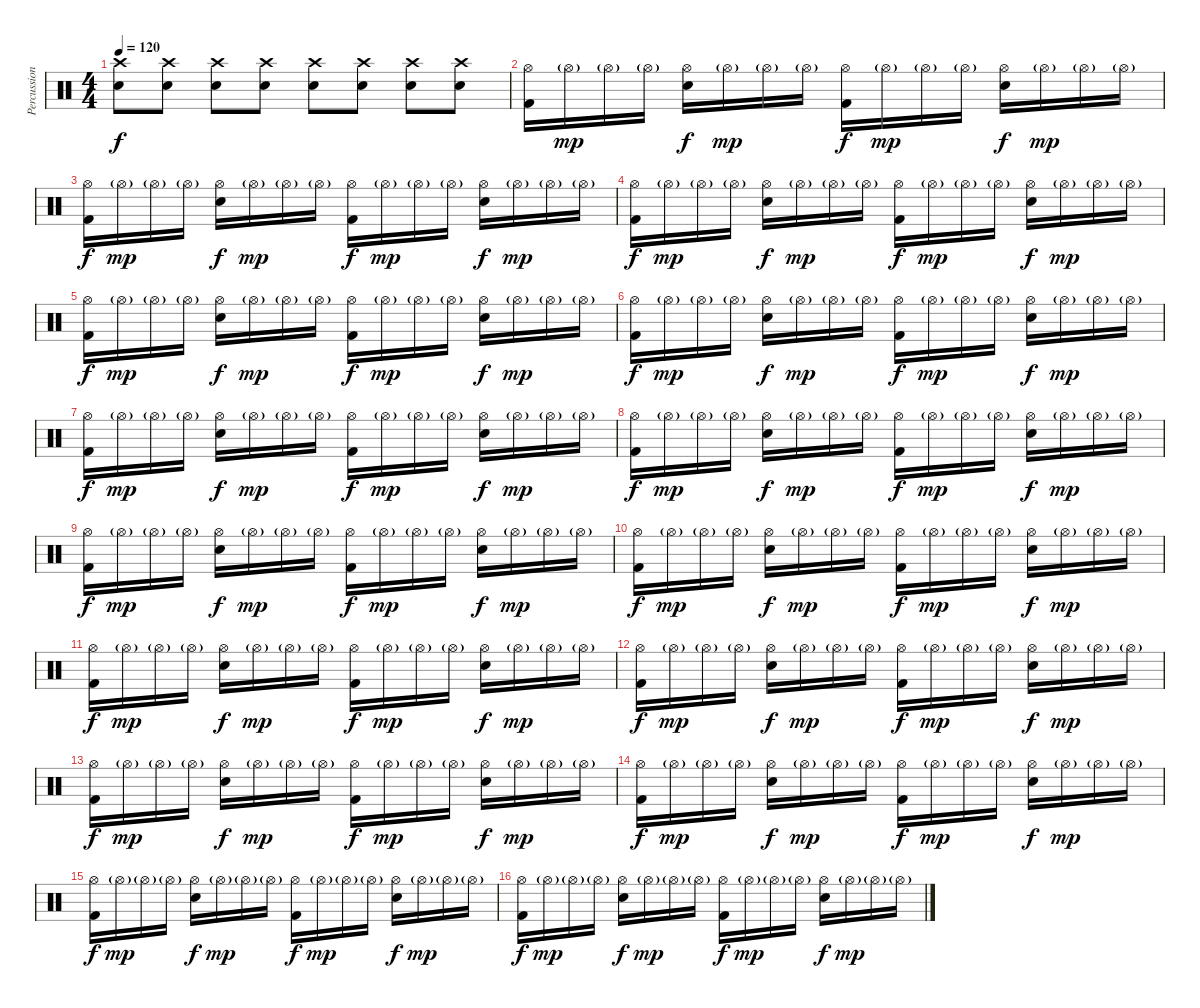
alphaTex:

\track ("Percussion" "Percussion") {instrument percussion}
\staff {score}
\articulation defaults
\ts (4 4)
\tempo 120
\clef neutral
\ks c
("Crash high (hit)" "Electric Snare (hit)").8{dy f} ("Crash high (hit)" "Electric Snare (hit)").8 ("Crash high (hit)" "Electric Snare (hit)").8 ("Crash high (hit)" "Electric Snare (hit)").8 ("Crash high (hit)" "Electric Snare (hit)").8 ("Crash high (hit)" "Electric Snare (hit)").8 ("Crash high (hit)" "Electric Snare (hit)").8 ("Crash high (hit)" "Electric Snare (hit)").8 |
("Hi-Hat (open)" "Kick (hit) 2").16 "Hi-Hat (open)"{g}.16{dy mp} "Hi-Hat (open)"{g}.16 "Hi-Hat (open)"{g}.16 ("Hi-Hat (open)" "Electric Snare (hit)").16{dy f} "Hi-Hat (open)"{g}.16{dy mp} "Hi-Hat (open)"{g}.16 "Hi-Hat (open)"{g}.16 ("Hi-Hat (open)" "Kick (hit) 2").16{dy f} "Hi-Hat (open)"{g}.16{dy mp} "Hi-Hat (open)"{g}.16 "Hi-Hat (open)"{g}.16 ("Hi-Hat (open)" "Electric Snare (hit)").16{dy f} "Hi-Hat (open)"{g}.16{dy mp} "Hi-Hat (open)"{g}.16 "Hi-Hat (open)"{g}.16 |
("Hi-Hat (open)" "Kick (hit) 2").16{dy f} "Hi-Hat (open)"{g}.16{dy mp} "Hi-Hat (open)"{g}.16 "Hi-Hat (open)"{g}.16 ("Hi-Hat (open)" "Electric Snare (hit)").16{dy f} "Hi-Hat (open)"{g}.16{dy mp} "Hi-Hat (open)"{g}.16 "Hi-Hat (open)"{g}.16 ("Hi-Hat (open)" "Kick (hit) 2").16{dy f} "Hi-Hat (open)"{g}.16{dy mp} "Hi-Hat (open)"{g}.16 "Hi-Hat (open)"{g}.16 ("Hi-Hat (open)" "Electric Snare (hit)").16{dy f} "Hi-Hat (open)"{g}.16{dy mp} "Hi-Hat (open)"{g}.16 "Hi-Hat (open)"{g}.16 |
("Hi-Hat (open)" "Kick (hit) 2").16{dy f} "Hi-Hat (open)"{g}.16{dy mp} "Hi-Hat (open)"{g}.16 "Hi-Hat (open)"{g}.16 ("Hi-Hat (open)" "Electric Snare (hit)").16{dy f} "Hi-Hat (open)"{g}.16{dy mp} "Hi-Hat (open)"{g}.16 "Hi-Hat (open)"{g}.16 ("Hi-Hat (open)" "Kick (hit) 2").16{dy f} "Hi-Hat (open)"{g}.16{dy mp} "Hi-Hat (open)"{g}.16 "Hi-Hat (open)"{g}.16 ("Hi-Hat (open)" "Electric Snare (hit)").16{dy f} "Hi-Hat (open)"{g}.16{dy mp} "Hi-Hat (open)"{g}.16 "Hi-Hat (open)"{g}.16 |
("Hi-Hat (open)" "Kick (hit) 2").16{dy f} "Hi-Hat (open)"{g}.16{dy mp} "Hi-Hat (open)"{g}.16 "Hi-Hat (open)"{g}.16 ("Hi-Hat (open)" "Electric Snare (hit)").16{dy f} "Hi-Hat (open)"{g}.16{dy mp} "Hi-Hat (open)"{g}.16 "Hi-Hat (open)"{g}.16 ("Hi-Hat (open)" "Kick (hit) 2").16{dy f} "Hi-Hat (open)"{g}.16{dy mp} "Hi-Hat (open)"{g}.16 "Hi-Hat (open)"{g}.16 ("Hi-Hat (open)" "Electric Snare (hit)").16{dy f} "Hi-Hat (open)"{g}.16{dy mp} "Hi-Hat (open)"{g}.16 "Hi-Hat (open)"{g}.16 |
("Hi-Hat (open)" "Kick (hit) 2").16{dy f} "Hi-Hat (open)"{g}.16{dy mp} "Hi-Hat (open)"{g}.16 "Hi-Hat (open)"{g}.16 ("Hi-Hat (open)" "Electric Snare (hit)").16{dy f} "Hi-Hat (open)"{g}.16{dy mp} "Hi-Hat (open)"{g}.16 "Hi-Hat (open)"{g}.16 ("Hi-Hat (open)" "Kick (hit) 2").16{dy f} "Hi-Hat (open)"{g}.16{dy mp} "Hi-Hat (open)"{g}.16 "Hi-Hat (open)"{g}.16 ("Hi-Hat (open)" "Electric Snare (hit)").16{dy f} "Hi-Hat (open)"{g}.16{dy mp} "Hi-Hat (open)"{g}.16 "Hi-Hat (open)"{g}.16 |
("Hi-Hat (open)" "Kick (hit) 2").16{dy f} "Hi-Hat (open)"{g}.16{dy mp} "Hi-Hat (open)"{g}.16 "Hi-Hat (open)"{g}.16 ("Hi-Hat (open)" "Electric Snare (hit)").16{dy f} "Hi-Hat (open)"{g}.16{dy mp} "Hi-Hat (open)"{g}.16 "Hi-Hat (open)"{g}.16 ("Hi-Hat (open)" "Kick (hit) 2").16{dy f} "Hi-Hat (open)"{g}.16{dy mp} "Hi-Hat (open)"{g}.16 "Hi-Hat (open)"{g}.16 ("Hi-Hat (open)" "Electric Snare (hit)").16{dy f} "Hi-Hat (open)"{g}.16{dy mp} "Hi-Hat (open)"{g}.16 "Hi-Hat (open)"{g}.16 |
("Hi-Hat (open)" "Kick (hit) 2").16{dy f} "Hi-Hat (open)"{g}.16{dy mp} "Hi-Hat (open)"{g}.16 "Hi-Hat (open)"{g}.16 ("Hi-Hat (open)" "Electric Snare (hit)").16{dy f} "Hi-Hat (open)"{g}.16{dy mp} "Hi-Hat (open)"{g}.16 "Hi-Hat (open)"{g}.16 ("Hi-Hat (open)" "Kick (hit) 2").16{dy f} "Hi-Hat (open)"{g}.16{dy mp} "Hi-Hat (open)"{g}.16 "Hi-Hat (open)"{g}.16 ("Hi-Hat (open)" "Electric Snare (hit)").16{dy f} "Hi-Hat (open)"{g}.16{dy mp} "Hi-Hat (open)"{g}.16 "Hi-Hat (open)"{g}.16 |
("Hi-Hat (open)" "Kick (hit) 2").16{dy f} "Hi-Hat (open)"{g}.16{dy mp} "Hi-Hat (open)"{g}.16 "Hi-Hat (open)"{g}.16 ("Hi-Hat (open)" "Electric Snare (hit)").16{dy f} "Hi-Hat (open)"{g}.16{dy mp} "Hi-Hat (open)"{g}.16 "Hi-Hat (open)"{g}.16 ("Hi-Hat (open)" "Kick (hit) 2").16{dy f} "Hi-Hat (open)"{g}.16{dy mp} "Hi-Hat (open)"{g}.16 "Hi-Hat (open)"{g}.16 ("Hi-Hat (open)" "Electric Snare (hit)").16{dy f} "Hi-Hat (open)"{g}.16{dy mp} "Hi-Hat (open)"{g}.16 "Hi-Hat (open)"{g}.16 |
("Hi-Hat (open)" "Kick (hit) 2").16{dy f} "Hi-Hat (open)"{g}.16{dy mp} "Hi-Hat (open)"{g}.16 "Hi-Hat (open)"{g}.16 ("Hi-Hat (open)" "Electric Snare (hit)").16{dy f} "Hi-Hat (open)"{g}.16{dy mp} "Hi-Hat (open)"{g}.16 "Hi-Hat (open)"{g}.16 ("Hi-Hat (open)" "Kick (hit) 2").16{dy f} "Hi-Hat (open)"{g}.16{dy mp} "Hi-Hat (open)"{g}.16 "Hi-Hat (open)"{g}.16 ("Hi-Hat (open)" "Electric Snare (hit)").16{dy f} "Hi-Hat (open)"{g}.16{dy mp} "Hi-Hat (open)"{g}.16 "Hi-Hat (open)"{g}.16 |
("Hi-Hat (open)" "Kick (hit) 2").16{dy f} "Hi-Hat (open)"{g}.16{dy mp} "Hi-Hat (open)"{g}.16 "Hi-Hat (open)"{g}.16 ("Hi-Hat (open)" "Electric Snare (hit)").16{dy f} "Hi-Hat (open)"{g}.16{dy mp} "Hi-Hat (open)"{g}.16 "Hi-Hat (open)"{g}.16 ("Hi-Hat (open)" "Kick (hit) 2").16{dy f} "Hi-Hat (open)"{g}.16{dy mp} "Hi-Hat (open)"{g}.16 "Hi-Hat (open)"{g}.16 ("Hi-Hat (open)" "Electric Snare (hit)").16{dy f} "Hi-Hat (open)"{g}.16{dy mp} "Hi-Hat (open)"{g}.16 "Hi-Hat (open)"{g}.16 |
("Hi-Hat (open)" "Kick (hit) 2").16{dy f} "Hi-Hat (open)"{g}.16{dy mp} "Hi-Hat (open)"{g}.16 "Hi-Hat (open)"{g}.16 ("Hi-Hat (open)" "Electric Snare (hit)").16{dy f} "Hi-Hat (open)"{g}.16{dy mp} "Hi-Hat (open)"{g}.16 "Hi-Hat (open)"{g}.16 ("Hi-Hat (open)" "Kick (hit) 2").16{dy f} "Hi-Hat (open)"{g}.16{dy mp} "Hi-Hat (open)"{g}.16 "Hi-Hat (open)"{g}.16 ("Hi-Hat (open)" "Electric Snare (hit)").16{dy f} "Hi-Hat (open)"{g}.16{dy mp} "Hi-Hat (open)"{g}.16 "Hi-Hat (open)"{g}.16 |
("Hi-Hat (open)" "Kick (hit) 2").16{dy f} "Hi-Hat (open)"{g}.16{dy mp} "Hi-Hat (open)"{g}.16 "Hi-Hat (open)"{g}.16 ("Hi-Hat (open)" "Electric Snare (hit)").16{dy f} "Hi-Hat (open)"{g}.16{dy mp} "Hi-Hat (open)"{g}.16 "Hi-Hat (open)"{g}.16 ("Hi-Hat (open)" "Kick (hit) 2").16{dy f} "Hi-Hat (open)"{g}.16{dy mp} "Hi-Hat (open)"{g}.16 "Hi-Hat (open)"{g}.16 ("Hi-Hat (open)" "Electric Snare (hit)").16{dy f} "Hi-Hat (open)"{g}.16{dy mp} "Hi-Hat (open)"{g}.16 "Hi-Hat (open)"{g}.16 |
("Hi-Hat (open)" "Kick (hit) 2").16{dy f} "Hi-Hat (open)"{g}.16{dy mp} "Hi-Hat (open)"{g}.16 "Hi-Hat (open)"{g}.16 ("Hi-Hat (open)" "Electric Snare (hit)").16{dy f} "Hi-Hat (open)"{g}.16{dy mp} "Hi-Hat (open)"{g}.16 "Hi-Hat (open)"{g}.16 ("Hi-Hat (open)" "Kick (hit) 2").16{dy f} "Hi-Hat (open)"{g}.16{dy mp} "Hi-Hat (open)"{g}.16 "Hi-Hat (open)"{g}.16 ("Hi-Hat (open)" "Electric Snare (hit)").16{dy f} "Hi-Hat (open)"{g}.16{dy mp} "Hi-Hat (open)"{g}.16 "Hi-Hat (open)"{g}.16 |
("Hi-Hat (open)" "Kick (hit) 2").16{dy f} "Hi-Hat (open)"{g}.16{dy mp} "Hi-Hat (open)"{g}.16 "Hi-Hat (open)"{g}.16 ("Hi-Hat (open)" "Electric Snare (hit)").16{dy f} "Hi-Hat (open)"{g}.16{dy mp} "Hi-Hat (open)"{g}.16 "Hi-Hat (open)"{g}.16 ("Hi-Hat (open)" "Kick (hit) 2").16{dy f} "Hi-Hat (open)"{g}.16{dy mp} "Hi-Hat (open)"{g}.16 "Hi-Hat (open)"{g}.16 ("Hi-Hat (open)" "Electric Snare (hit)").16{dy f} "Hi-Hat (open)"{g}.16{dy mp} "Hi-Hat (open)"{g}.16 "Hi-Hat (open)"{g}.16 |
("Hi-Hat (open)" "Kick (hit) 2").16{dy f} "Hi-Hat (open)"{g}.16{dy mp} "Hi-Hat (open)"{g}.16 "Hi-Hat (open)"{g}.16 ("Hi-Hat (open)" "Electric Snare (hit)").16{dy f} "Hi-Hat (open)"{g}.16{dy mp} "Hi-Hat (open)"{g}.16 "Hi-Hat (open)"{g}.16 ("Hi-Hat (open)" "Kick (hit) 2").16{dy f} "Hi-Hat (open)"{g}.16{dy mp} "Hi-Hat (open)"{g}.16 "Hi-Hat (open)"{g}.16 ("Hi-Hat (open)" "Electric Snare (hit)").16{dy f} "Hi-Hat (open)"{g}.16{dy mp} "Hi-Hat (open)"{g}.16 "Hi-Hat (open)"{g}.16
